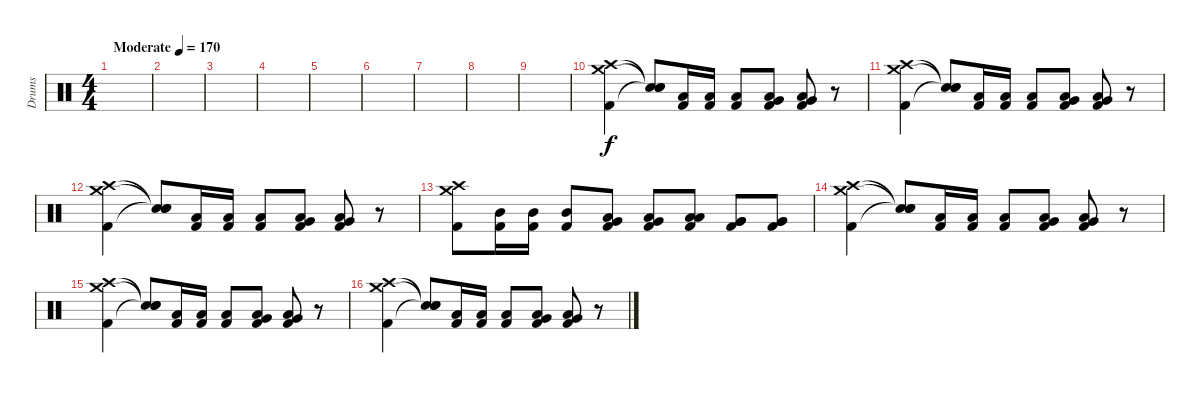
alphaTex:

\track ("Drums" "Drums") {instrument percussion}
\staff {score}
\articulation defaults
\ts (4 4)
\tempo (170 "Moderate")
\clef neutral
\ks c
|
|
|
|
|
|
|
|
|
("Crash medium (hit)" "Crash high (hit)" "Kick (hit) 2").4 ("Snare (hit)"{t} "Snare (hit)"{t} "Snare (hit)"{t}).8 ("Low Tom (hit)" "Kick (hit) 2").16 ("Low Tom (hit)" "Kick (hit) 2").16 ("Low Tom (hit)" "Kick (hit) 2").8 ("Low Tom (hit)" "Very Low Tom (hit)" "Kick (hit) 2").8 ("Low Tom (hit)" "Very Low Tom (hit)" "Kick (hit) 2").8 r.8 |
("Crash medium (hit)" "Crash high (hit)" "Kick (hit) 2").4 ("Snare (hit)"{t} "Snare (hit)"{t} "Snare (hit)"{t}).8 ("Low Tom (hit)" "Kick (hit) 2").16 ("Low Tom (hit)" "Kick (hit) 2").16 ("Low Tom (hit)" "Kick (hit) 2").8 ("Low Tom (hit)" "Very Low Tom (hit)" "Kick (hit) 2").8 ("Low Tom (hit)" "Very Low Tom (hit)" "Kick (hit) 2").8 r.8 |
("Crash medium (hit)" "Crash high (hit)" "Kick (hit) 2").4 ("Snare (hit)"{t} "Snare (hit)"{t} "Snare (hit)"{t}).8 ("Low Tom (hit)" "Kick (hit) 2").16 ("Low Tom (hit)" "Kick (hit) 2").16 ("Low Tom (hit)" "Kick (hit) 2").8 ("Low Tom (hit)" "Very Low Tom (hit)" "Kick (hit) 2").8 ("Low Tom (hit)" "Very Low Tom (hit)" "Kick (hit) 2").8 r.8 |
("Crash medium (hit)" "Crash high (hit)" "Kick (hit) 2").8 ("Mid Tom (hit)" "Kick (hit) 2").16 ("Mid Tom (hit)" "Kick (hit) 2").16 ("Mid Tom (hit)" "Kick (hit) 2").8 ("Low Tom (hit)" "Very Low Tom (hit)" "Kick (hit) 2").8 ("Low Tom (hit)" "Very Low Tom (hit)" "Kick (hit) 2").8 ("Low Tom (hit)" "Low Tom (hit)" "Kick (hit) 2").8 ("Very Low Tom (hit)" "Very Low Tom (hit)" "Kick (hit) 2").8 ("Very Low Tom (hit)" "Very Low Tom (hit)" "Kick (hit) 2").8 |
("Crash medium (hit)" "Crash high (hit)" "Kick (hit) 2").4 ("Snare (hit)"{t} "Snare (hit)"{t} "Snare (hit)"{t}).8 ("Low Tom (hit)" "Kick (hit) 2").16 ("Low Tom (hit)" "Kick (hit) 2").16 ("Low Tom (hit)" "Kick (hit) 2").8 ("Low Tom (hit)" "Very Low Tom (hit)" "Kick (hit) 2").8 ("Low Tom (hit)" "Very Low Tom (hit)" "Kick (hit) 2").8 r.8 |
("Crash medium (hit)" "Crash high (hit)" "Kick (hit) 2").4 ("Snare (hit)"{t} "Snare (hit)"{t} "Snare (hit)"{t}).8 ("Low Tom (hit)" "Kick (hit) 2").16 ("Low Tom (hit)" "Kick (hit) 2").16 ("Low Tom (hit)" "Kick (hit) 2").8 ("Low Tom (hit)" "Very Low Tom (hit)" "Kick (hit) 2").8 ("Low Tom (hit)" "Very Low Tom (hit)" "Kick (hit) 2").8 r.8 |
("Crash medium (hit)" "Crash high (hit)" "Kick (hit) 2").4 ("Snare (hit)"{t} "Snare (hit)"{t} "Snare (hit)"{t}).8 ("Low Tom (hit)" "Kick (hit) 2").16 ("Low Tom (hit)" "Kick (hit) 2").16 ("Low Tom (hit)" "Kick (hit) 2").8 ("Low Tom (hit)" "Very Low Tom (hit)" "Kick (hit) 2").8 ("Low Tom (hit)" "Very Low Tom (hit)" "Kick (hit) 2").8 r.8
